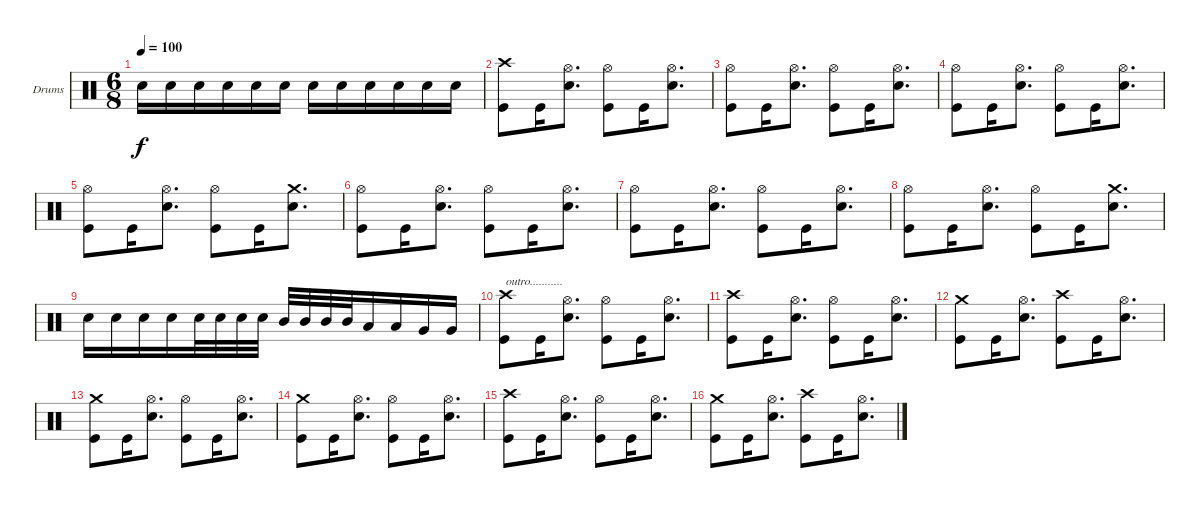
\defaultSystemsLayout 4
\bracketExtendMode groupsimilarinstruments
\firstSystemTrackNameOrientation horizontal
\otherSystemsTrackNameOrientation horizontal
\track ("Stefan Schwarzmann" "Drums") {instrument percussion}
\staff {score}
\articulation defaults
\ts (6 8)
\tempo 100
\clef neutral
\ks c "Snare (hit) 2".16{dy f} "Snare (hit) 2".16 "Snare (hit) 2".16 "Snare (hit) 2".16 "Snare (hit) 2".16 "Snare (hit) 2".16 "Snare (hit) 2".16 "Snare (hit) 2".16 "Snare (hit) 2".16 "Snare (hit) 2".16 "Snare (hit) 2".16 "Snare (hit) 2".16
|
("Kick (hit)" "Crash high (hit)").8 "Kick (hit)".16 ("Snare (hit) 2" "Hi-Hat (open)").8{d} ("Kick (hit)" "Hi-Hat (open)").8 "Kick (hit)".16 ("Snare (hit) 2" "Hi-Hat (open)").8{d} |
("Kick (hit)" "Hi-Hat (open)").8 "Kick (hit)".16 ("Snare (hit) 2" "Hi-Hat (open)").8{d} ("Kick (hit)" "Hi-Hat (open)").8 "Kick (hit)".16 ("Snare (hit) 2" "Hi-Hat (open)").8{d} |
("Kick (hit)" "Hi-Hat (open)").8 "Kick (hit)".16 ("Snare (hit) 2" "Hi-Hat (open)").8{d} ("Kick (hit)" "Hi-Hat (open)").8 "Kick (hit)".16 ("Snare (hit) 2" "Hi-Hat (open)").8{d} |
("Kick (hit)" "Hi-Hat (open)").8 "Kick (hit)".16 ("Snare (hit) 2" "Hi-Hat (open)").8{d} ("Kick (hit)" "Hi-Hat (open)").8 "Kick (hit)".16 ("Snare (hit) 2" "Crash medium (hit)").8{d} |
("Kick (hit)" "Hi-Hat (open)").8 "Kick (hit)".16 ("Snare (hit) 2" "Hi-Hat (open)").8{d} ("Kick (hit)" "Hi-Hat (open)").8 "Kick (hit)".16 ("Snare (hit) 2" "Hi-Hat (open)").8{d} |
("Kick (hit)" "Hi-Hat (open)").8 "Kick (hit)".16 ("Snare (hit) 2" "Hi-Hat (open)").8{d} ("Kick (hit)" "Hi-Hat (open)").8 "Kick (hit)".16 ("Snare (hit) 2" "Hi-Hat (open)").8{d} |
("Kick (hit)" "Hi-Hat (open)").8 "Kick (hit)".16 ("Snare (hit) 2" "Hi-Hat (open)").8{d} ("Kick (hit)" "Hi-Hat (open)").8 "Kick (hit)".16 ("Snare (hit) 2" "Crash medium (hit)").8{d} |
"Snare (hit) 2".16 "Snare (hit) 2".16 "Snare (hit) 2".16 "Snare (hit) 2".16 "Snare (hit) 2".32 "Snare (hit) 2".32 "Snare (hit) 2".32 "Snare (hit) 2".32 "Mid Tom (hit)".32 "Mid Tom (hit)".32 "Mid Tom (hit)".32 "Mid Tom (hit)".32 "Low Tom (hit)".16 "Low Tom (hit)".16 "Very Low Tom (hit)".16 "Very Low Tom (hit)".16 |
("Kick (hit)" "Crash high (hit)").8{txt "outro..........."} "Kick (hit)".16 ("Snare (hit) 2" "Hi-Hat (open)").8{d} ("Kick (hit)" "Hi-Hat (open)").8 "Kick (hit)".16 ("Snare (hit) 2" "Hi-Hat (open)").8{d} |
("Kick (hit)" "Crash high (hit)").8 "Kick (hit)".16 ("Snare (hit) 2" "Hi-Hat (open)").8{d} ("Kick (hit)" "Hi-Hat (open)").8 "Kick (hit)".16 ("Snare (hit) 2" "Hi-Hat (open)").8{d} |
("Kick (hit)" "Crash medium (hit)").8 "Kick (hit)".16 ("Snare (hit) 2" "Hi-Hat (open)").8{d} ("Kick (hit)" "Crash high (hit)").8 "Kick (hit)".16 ("Snare (hit) 2" "Hi-Hat (open)").8{d} |
("Kick (hit)" "Crash medium (hit)").8 "Kick (hit)".16 ("Snare (hit) 2" "Hi-Hat (open)").8{d} ("Kick (hit)" "Hi-Hat (open)").8 "Kick (hit)".16 ("Snare (hit) 2" "Hi-Hat (open)").8{d} |
("Kick (hit)" "Crash medium (hit)").8 "Kick (hit)".16 ("Snare (hit) 2" "Hi-Hat (open)").8{d} ("Kick (hit)" "Hi-Hat (open)").8 "Kick (hit)".16 ("Snare (hit) 2" "Hi-Hat (open)").8{d} |
("Kick (hit)" "Crash high (hit)").8 "Kick (hit)".16 ("Snare (hit) 2" "Hi-Hat (open)").8{d} ("Kick (hit)" "Hi-Hat (open)").8 "Kick (hit)".16 ("Snare (hit) 2" "Hi-Hat (open)").8{d} |
("Kick (hit)" "Crash medium (hit)").8 "Kick (hit)".16 ("Snare (hit) 2" "Hi-Hat (open)").8{d} ("Kick (hit)" "Crash high (hit)").8 "Kick (hit)".16 ("Snare (hit) 2" "Hi-Hat (open)").8{d}
